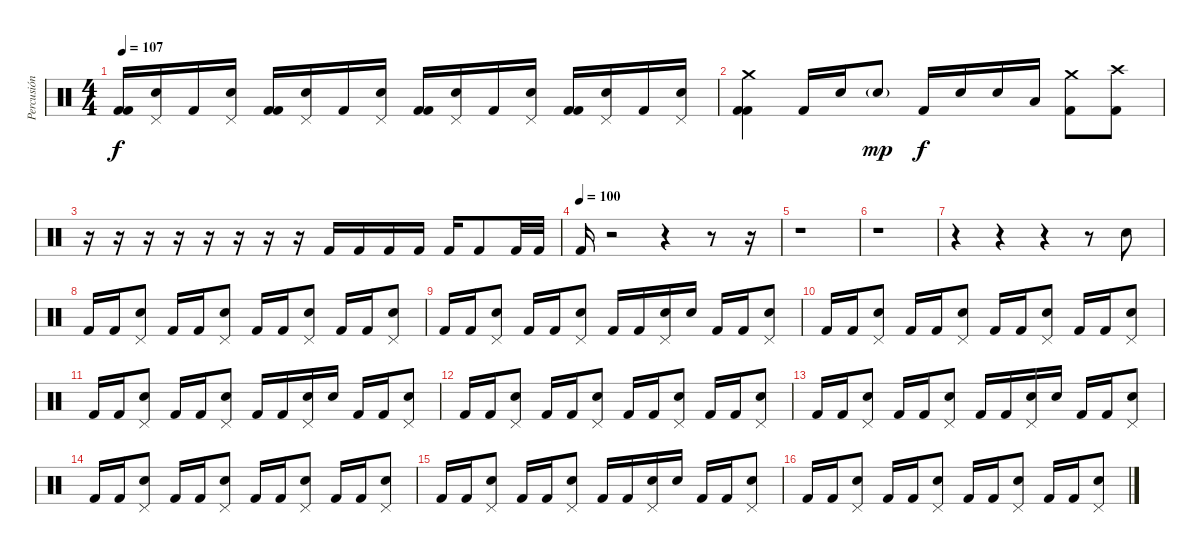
\track ("Percusión" "Percusión") {instrument percussion}
\staff {score}
\articulation defaults
\ts (4 4)
\tempo 107
\clef neutral
\ks c
("Kick (hit) 2" "Kick (hit) 2").16{dy f} ("Electric Snare (hit)" "Pedal Hi-Hat (hit)").16 "Kick (hit) 2".16 ("Electric Snare (hit)" "Pedal Hi-Hat (hit)").16 ("Kick (hit) 2" "Kick (hit) 2").16 ("Electric Snare (hit)" "Pedal Hi-Hat (hit)").16 "Kick (hit) 2".16 ("Electric Snare (hit)" "Pedal Hi-Hat (hit)").16 ("Kick (hit) 2" "Kick (hit) 2").16 ("Electric Snare (hit)" "Pedal Hi-Hat (hit)").16 "Kick (hit) 2".16 ("Electric Snare (hit)" "Pedal Hi-Hat (hit)").16 ("Kick (hit) 2" "Kick (hit) 2").16 ("Electric Snare (hit)" "Pedal Hi-Hat (hit)").16 "Kick (hit) 2".16 ("Electric Snare (hit)" "Pedal Hi-Hat (hit)").16 |
("Kick (hit) 2" "Kick (hit) 2" "Crash medium (hit)").4 "Kick (hit) 2".16 "Electric Snare (hit)".16 "Electric Snare (hit)"{g}.8{dy mp} "Kick (hit) 2".16{dy f} "Electric Snare (hit)".16 "Electric Snare (hit)".16 "Low Floor Tom (hit)".16 ("Kick (hit) 2" "Crash medium (hit)").8 ("Kick (hit) 2" "Crash high (hit)").8 |
r.16 r.16 r.16 r.16 r.16 r.16 r.16 r.16 "Kick (hit) 2".16{volume 10} "Kick (hit) 2".16{volume 11} "Kick (hit) 2".16{volume 11} "Kick (hit) 2".16{volume 12} "Kick (hit) 2".16{volume 13} "Kick (hit) 2".8{volume 13} "Kick (hit) 2".32 "Kick (hit) 2".32 |
\tempo (100)
"Kick (hit) 2".16 r.2 r.4 r.8 r.16 |
r.1 |
r.1 |
r.4 r.4 r.4 r.8 "Electric Snare (hit)".8 |
"Kick (hit) 2".16 "Kick (hit) 2".16 ("Electric Snare (hit)" "Pedal Hi-Hat (hit)").8 "Kick (hit) 2".16 "Kick (hit) 2".16 ("Electric Snare (hit)" "Pedal Hi-Hat (hit)").8 "Kick (hit) 2".16 "Kick (hit) 2".16 ("Electric Snare (hit)" "Pedal Hi-Hat (hit)").8 "Kick (hit) 2".16 "Kick (hit) 2".16 ("Electric Snare (hit)" "Pedal Hi-Hat (hit)").8 |
"Kick (hit) 2".16 "Kick (hit) 2".16 ("Electric Snare (hit)" "Pedal Hi-Hat (hit)").8 "Kick (hit) 2".16 "Kick (hit) 2".16 ("Electric Snare (hit)" "Pedal Hi-Hat (hit)").8 "Kick (hit) 2".16 "Kick (hit) 2".16 ("Electric Snare (hit)" "Pedal Hi-Hat (hit)").16 "Electric Snare (hit)".16 "Kick (hit) 2".16 "Kick (hit) 2".16 ("Electric Snare (hit)" "Pedal Hi-Hat (hit)").8 |
"Kick (hit) 2".16 "Kick (hit) 2".16 ("Electric Snare (hit)" "Pedal Hi-Hat (hit)").8 "Kick (hit) 2".16 "Kick (hit) 2".16 ("Electric Snare (hit)" "Pedal Hi-Hat (hit)").8 "Kick (hit) 2".16 "Kick (hit) 2".16 ("Electric Snare (hit)" "Pedal Hi-Hat (hit)").8 "Kick (hit) 2".16 "Kick (hit) 2".16 ("Electric Snare (hit)" "Pedal Hi-Hat (hit)").8 |
"Kick (hit) 2".16 "Kick (hit) 2".16 ("Electric Snare (hit)" "Pedal Hi-Hat (hit)").8 "Kick (hit) 2".16 "Kick (hit) 2".16 ("Electric Snare (hit)" "Pedal Hi-Hat (hit)").8 "Kick (hit) 2".16 "Kick (hit) 2".16 ("Electric Snare (hit)" "Pedal Hi-Hat (hit)").16 "Electric Snare (hit)".16 "Kick (hit) 2".16 "Kick (hit) 2".16 ("Electric Snare (hit)" "Pedal Hi-Hat (hit)").8 |
"Kick (hit) 2".16 "Kick (hit) 2".16 ("Electric Snare (hit)" "Pedal Hi-Hat (hit)").8 "Kick (hit) 2".16 "Kick (hit) 2".16 ("Electric Snare (hit)" "Pedal Hi-Hat (hit)").8 "Kick (hit) 2".16 "Kick (hit) 2".16 ("Electric Snare (hit)" "Pedal Hi-Hat (hit)").8 "Kick (hit) 2".16 "Kick (hit) 2".16 ("Electric Snare (hit)" "Pedal Hi-Hat (hit)").8 |
"Kick (hit) 2".16 "Kick (hit) 2".16 ("Electric Snare (hit)" "Pedal Hi-Hat (hit)").8 "Kick (hit) 2".16 "Kick (hit) 2".16 ("Electric Snare (hit)" "Pedal Hi-Hat (hit)").8 "Kick (hit) 2".16 "Kick (hit) 2".16 ("Electric Snare (hit)" "Pedal Hi-Hat (hit)").16 "Electric Snare (hit)".16 "Kick (hit) 2".16 "Kick (hit) 2".16 ("Electric Snare (hit)" "Pedal Hi-Hat (hit)").8 |
"Kick (hit) 2".16 "Kick (hit) 2".16 ("Electric Snare (hit)" "Pedal Hi-Hat (hit)").8 "Kick (hit) 2".16 "Kick (hit) 2".16 ("Electric Snare (hit)" "Pedal Hi-Hat (hit)").8 "Kick (hit) 2".16 "Kick (hit) 2".16 ("Electric Snare (hit)" "Pedal Hi-Hat (hit)").8 "Kick (hit) 2".16 "Kick (hit) 2".16 ("Electric Snare (hit)" "Pedal Hi-Hat (hit)").8 |
"Kick (hit) 2".16 "Kick (hit) 2".16 ("Electric Snare (hit)" "Pedal Hi-Hat (hit)").8 "Kick (hit) 2".16 "Kick (hit) 2".16 ("Electric Snare (hit)" "Pedal Hi-Hat (hit)").8 "Kick (hit) 2".16 "Kick (hit) 2".16 ("Electric Snare (hit)" "Pedal Hi-Hat (hit)").16 "Electric Snare (hit)".16 "Kick (hit) 2".16 "Kick (hit) 2".16 ("Electric Snare (hit)" "Pedal Hi-Hat (hit)").8 |
"Kick (hit) 2".16 "Kick (hit) 2".16 ("Electric Snare (hit)" "Pedal Hi-Hat (hit)").8 "Kick (hit) 2".16 "Kick (hit) 2".16 ("Electric Snare (hit)" "Pedal Hi-Hat (hit)").8 "Kick (hit) 2".16 "Kick (hit) 2".16 ("Electric Snare (hit)" "Pedal Hi-Hat (hit)").8 "Kick (hit) 2".16 "Kick (hit) 2".16 ("Electric Snare (hit)" "Pedal Hi-Hat (hit)").8
